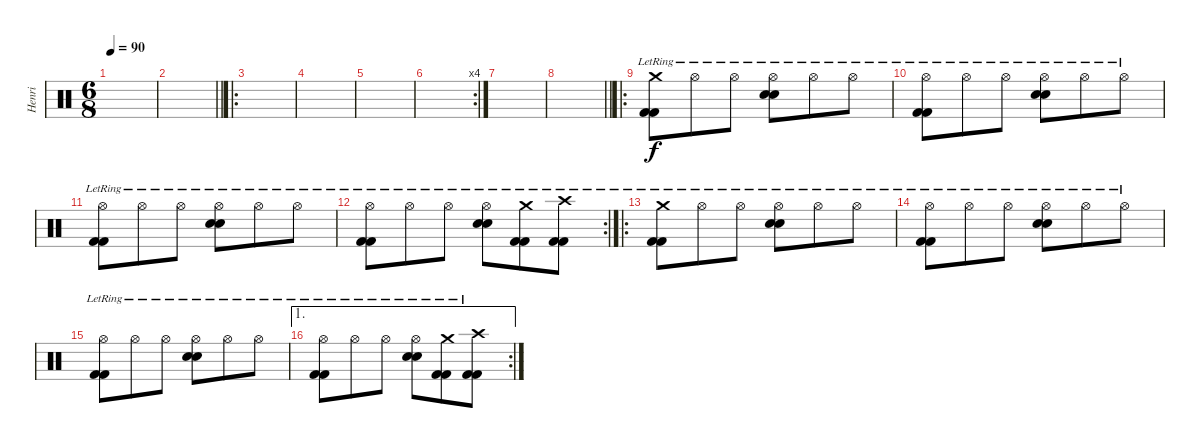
\track ("Henri" "Henri") {instrument percussion}
\staff {score}
\articulation defaults
\ts (6 8)
\tempo 90
\clef neutral
\ks c
|
\barLineRight lightlight
|
\ro
|
|
|
\rc 4
|
|
\barLineRight lightlight
|
\ro
("Crash medium (hit)"{lr} "Kick (hit) 2" "Kick (hit) 2").8 "Hi-Hat (open)"{lr}.8 "Hi-Hat (open)"{lr}.8 ("Hi-Hat (open)"{lr} "Electric Snare (hit)" "Electric Snare (hit)").8 "Hi-Hat (open)"{lr}.8 "Hi-Hat (open)"{lr}.8 |
("Hi-Hat (open)"{lr} "Kick (hit) 2" "Kick (hit) 2").8 "Hi-Hat (open)"{lr}.8 "Hi-Hat (open)"{lr}.8 ("Hi-Hat (open)"{lr} "Electric Snare (hit)" "Electric Snare (hit)").8 "Hi-Hat (open)"{lr}.8 "Hi-Hat (open)"{lr}.8 |
("Hi-Hat (open)"{lr} "Kick (hit) 2" "Kick (hit) 2").8 "Hi-Hat (open)"{lr}.8 "Hi-Hat (open)"{lr}.8 ("Hi-Hat (open)"{lr} "Electric Snare (hit)" "Electric Snare (hit)").8 "Hi-Hat (open)"{lr}.8 "Hi-Hat (open)"{lr}.8 |
\rc 2
("Hi-Hat (open)"{lr} "Kick (hit) 2" "Kick (hit) 2").8 "Hi-Hat (open)"{lr}.8 "Hi-Hat (open)"{lr}.8 ("Hi-Hat (open)"{lr} "Electric Snare (hit)" "Electric Snare (hit)").8 ("Crash medium (hit)"{lr} "Kick (hit) 2" "Kick (hit) 2").8 ("Crash high (hit)"{lr} "Kick (hit) 2" "Kick (hit) 2").8 |
\ro
("Crash medium (hit)"{lr} "Kick (hit) 2" "Kick (hit) 2").8 "Hi-Hat (open)"{lr}.8 "Hi-Hat (open)"{lr}.8 ("Hi-Hat (open)"{lr} "Electric Snare (hit)" "Electric Snare (hit)").8 "Hi-Hat (open)"{lr}.8 "Hi-Hat (open)"{lr}.8 |
("Hi-Hat (open)"{lr} "Kick (hit) 2" "Kick (hit) 2").8 "Hi-Hat (open)"{lr}.8 "Hi-Hat (open)"{lr}.8 ("Hi-Hat (open)"{lr} "Electric Snare (hit)" "Electric Snare (hit)").8 "Hi-Hat (open)"{lr}.8 "Hi-Hat (open)"{lr}.8 |
("Hi-Hat (open)"{lr} "Kick (hit) 2" "Kick (hit) 2").8 "Hi-Hat (open)"{lr}.8 "Hi-Hat (open)"{lr}.8 ("Hi-Hat (open)"{lr} "Electric Snare (hit)" "Electric Snare (hit)").8 "Hi-Hat (open)"{lr}.8 "Hi-Hat (open)"{lr}.8 |
\ae 1
\rc 2
("Hi-Hat (open)"{lr} "Kick (hit) 2" "Kick (hit) 2").8 "Hi-Hat (open)"{lr}.8 "Hi-Hat (open)"{lr}.8 ("Hi-Hat (open)"{lr} "Electric Snare (hit)" "Electric Snare (hit)").8 ("Crash medium (hit)"{lr} "Kick (hit) 2" "Kick (hit) 2").8 ("Crash high (hit)"{lr} "Kick (hit) 2" "Kick (hit) 2").8
